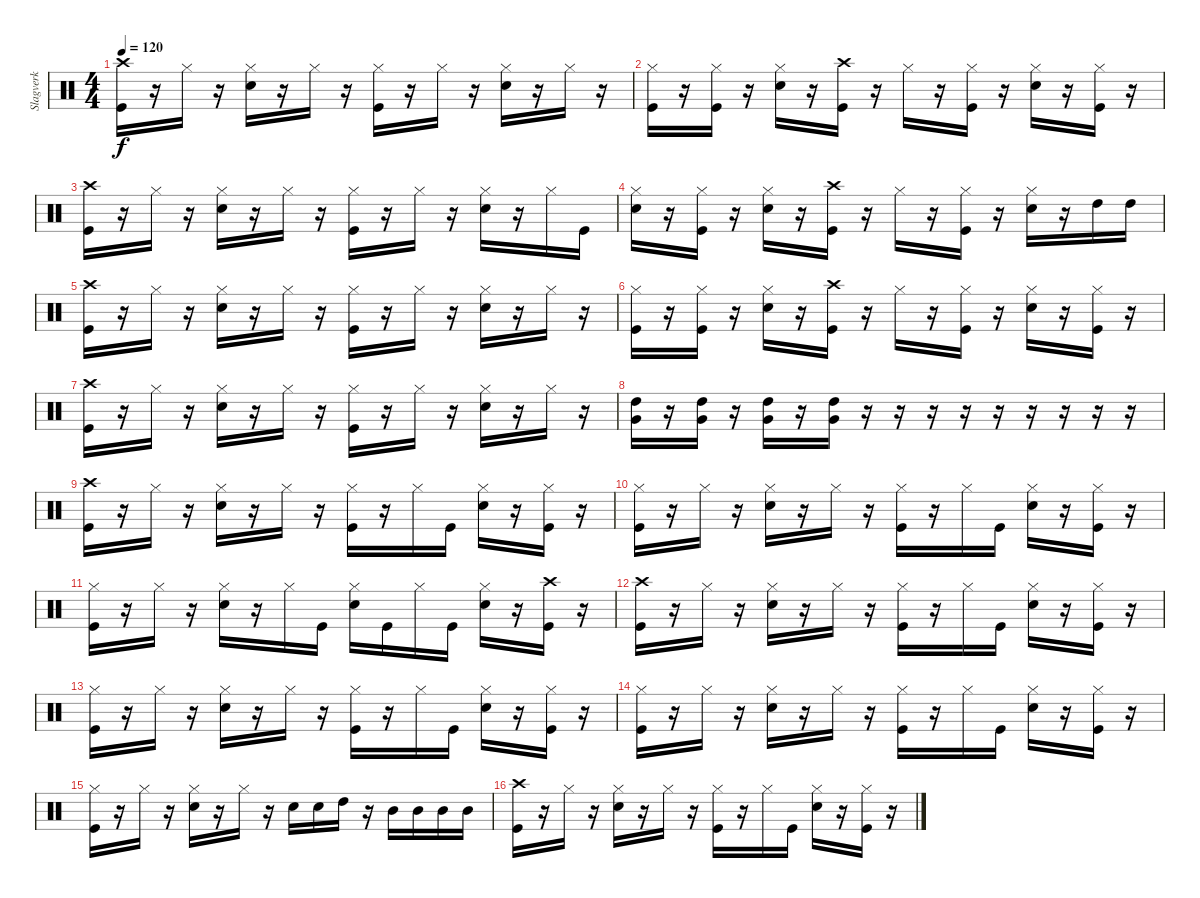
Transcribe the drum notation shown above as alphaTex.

\track ("Slagverk" "Slagverk") {instrument percussion}
\staff {score}
\articulation defaults
\ts (4 4)
\tempo 120
\clef neutral
\ks c
("Crash high (hit)" "Kick (hit)").16{dy f} r.16 "Hi-Hat (closed)".16 r.16 ("Hi-Hat (closed)" "Snare (hit) 2").16 r.16 "Hi-Hat (closed)".16 r.16 ("Hi-Hat (closed)" "Kick (hit)").16 r.16 "Hi-Hat (closed)".16 r.16 ("Hi-Hat (closed)" "Snare (hit) 2").16 r.16 "Hi-Hat (closed)".16 r.16 |
("Hi-Hat (closed)" "Kick (hit)").16 r.16 ("Hi-Hat (closed)" "Kick (hit)").16 r.16 ("Hi-Hat (closed)" "Snare (hit) 2").16 r.16 ("Crash high (hit)" "Kick (hit)").16 r.16 "Hi-Hat (closed)".16 r.16 ("Hi-Hat (closed)" "Kick (hit)").16 r.16 ("Hi-Hat (closed)" "Snare (hit) 2").16 r.16 ("Hi-Hat (closed)" "Kick (hit)").16 r.16 |
("Crash high (hit)" "Kick (hit)").16 r.16 "Hi-Hat (closed)".16 r.16 ("Hi-Hat (closed)" "Snare (hit) 2").16 r.16 "Hi-Hat (closed)".16 r.16 ("Hi-Hat (closed)" "Kick (hit)").16 r.16 "Hi-Hat (closed)".16 r.16 ("Hi-Hat (closed)" "Snare (hit) 2").16 r.16 "Hi-Hat (closed)".16 "Kick (hit)".16 |
("Hi-Hat (closed)" "Snare (hit) 2").16 r.16 ("Hi-Hat (closed)" "Kick (hit)").16 r.16 ("Hi-Hat (closed)" "Snare (hit) 2").16 r.16 ("Crash high (hit)" "Kick (hit)").16 r.16 "Hi-Hat (closed)".16 r.16 ("Hi-Hat (closed)" "Kick (hit)").16 r.16 ("Hi-Hat (closed)" "Snare (hit) 2").16 r.16 "High Tom (hit)".16 "High Tom (hit)".16 |
("Crash high (hit)" "Kick (hit)").16 r.16 "Hi-Hat (closed)".16 r.16 ("Hi-Hat (closed)" "Snare (hit) 2").16 r.16 "Hi-Hat (closed)".16 r.16 ("Hi-Hat (closed)" "Kick (hit)").16 r.16 "Hi-Hat (closed)".16 r.16 ("Hi-Hat (closed)" "Snare (hit) 2").16 r.16 "Hi-Hat (closed)".16 r.16 |
("Hi-Hat (closed)" "Kick (hit)").16 r.16 ("Hi-Hat (closed)" "Kick (hit)").16 r.16 ("Hi-Hat (closed)" "Snare (hit) 2").16 r.16 ("Crash high (hit)" "Kick (hit)").16 r.16 "Hi-Hat (closed)".16 r.16 ("Hi-Hat (closed)" "Kick (hit)").16 r.16 ("Hi-Hat (closed)" "Snare (hit) 2").16 r.16 ("Hi-Hat (closed)" "Kick (hit)").16 r.16 |
("Crash high (hit)" "Kick (hit)").16 r.16 "Hi-Hat (closed)".16 r.16 ("Hi-Hat (closed)" "Snare (hit) 2").16 r.16 "Hi-Hat (closed)".16 r.16 ("Hi-Hat (closed)" "Kick (hit)").16 r.16 "Hi-Hat (closed)".16 r.16 ("Hi-Hat (closed)" "Snare (hit) 2").16 r.16 "Hi-Hat (closed)".16 r.16 |
("Very Low Tom (hit)" "High Tom (hit)").16 r.16 ("Very Low Tom (hit)" "High Tom (hit)").16 r.16 ("Very Low Tom (hit)" "High Tom (hit)").16 r.16 ("Very Low Tom (hit)" "High Tom (hit)").16 r.16 r.16 r.16 r.16 r.16 r.16 r.16 r.16 r.16 |
("Crash high (hit)" "Kick (hit)").16 r.16 "Hi-Hat (closed)".16 r.16 ("Hi-Hat (closed)" "Snare (hit) 2").16 r.16 "Hi-Hat (closed)".16 r.16 ("Hi-Hat (closed)" "Kick (hit)").16 r.16 "Hi-Hat (closed)".16 "Kick (hit)".16 ("Hi-Hat (closed)" "Snare (hit) 2").16 r.16 ("Hi-Hat (closed)" "Kick (hit)").16 r.16 |
("Hi-Hat (closed)" "Kick (hit)").16 r.16 "Hi-Hat (closed)".16 r.16 ("Hi-Hat (closed)" "Snare (hit) 2").16 r.16 "Hi-Hat (closed)".16 r.16 ("Hi-Hat (closed)" "Kick (hit)").16 r.16 "Hi-Hat (closed)".16 "Kick (hit)".16 ("Hi-Hat (closed)" "Snare (hit) 2").16 r.16 ("Hi-Hat (closed)" "Kick (hit)").16 r.16 |
("Hi-Hat (closed)" "Kick (hit)").16 r.16 "Hi-Hat (closed)".16 r.16 ("Hi-Hat (closed)" "Snare (hit) 2").16 r.16 "Hi-Hat (closed)".16 "Kick (hit)".16 ("Hi-Hat (closed)" "Snare (hit) 2").16 "Kick (hit)".16 "Hi-Hat (closed)".16 "Kick (hit)".16 ("Hi-Hat (closed)" "Snare (hit) 2").16 r.16 ("Crash high (hit)" "Kick (hit)").16 r.16 |
("Crash high (hit)" "Kick (hit)").16 r.16 "Hi-Hat (closed)".16 r.16 ("Hi-Hat (closed)" "Snare (hit) 2").16 r.16 "Hi-Hat (closed)".16 r.16 ("Hi-Hat (closed)" "Kick (hit)").16 r.16 "Hi-Hat (closed)".16 "Kick (hit)".16 ("Hi-Hat (closed)" "Snare (hit) 2").16 r.16 ("Hi-Hat (closed)" "Kick (hit)").16 r.16 |
("Hi-Hat (closed)" "Kick (hit)").16 r.16 "Hi-Hat (closed)".16 r.16 ("Hi-Hat (closed)" "Snare (hit) 2").16 r.16 "Hi-Hat (closed)".16 r.16 ("Hi-Hat (closed)" "Kick (hit)").16 r.16 "Hi-Hat (closed)".16 "Kick (hit)".16 ("Hi-Hat (closed)" "Snare (hit) 2").16 r.16 ("Hi-Hat (closed)" "Kick (hit)").16 r.16 |
("Hi-Hat (closed)" "Kick (hit)").16 r.16 "Hi-Hat (closed)".16 r.16 ("Hi-Hat (closed)" "Snare (hit) 2").16 r.16 "Hi-Hat (closed)".16 r.16 ("Hi-Hat (closed)" "Kick (hit)").16 r.16 "Hi-Hat (closed)".16 "Kick (hit)".16 ("Hi-Hat (closed)" "Snare (hit) 2").16 r.16 ("Hi-Hat (closed)" "Kick (hit)").16 r.16 |
("Hi-Hat (closed)" "Kick (hit)").16 r.16 "Hi-Hat (closed)".16 r.16 ("Hi-Hat (closed)" "Snare (hit) 2").16 r.16 "Hi-Hat (closed)".16 r.16 "Snare (hit) 2".16 "Snare (hit) 2".16 "High Tom (hit)".16 r.16 "Mid Tom (hit)".16 "Mid Tom (hit)".16 "Mid Tom (hit)".16 "Mid Tom (hit)".16 |
("Crash high (hit)" "Kick (hit)").16 r.16 "Hi-Hat (closed)".16 r.16 ("Hi-Hat (closed)" "Snare (hit) 2").16 r.16 "Hi-Hat (closed)".16 r.16 ("Hi-Hat (closed)" "Kick (hit)").16 r.16 "Hi-Hat (closed)".16 "Kick (hit)".16 ("Hi-Hat (closed)" "Snare (hit) 2").16 r.16 ("Hi-Hat (closed)" "Kick (hit)").16 r.16
